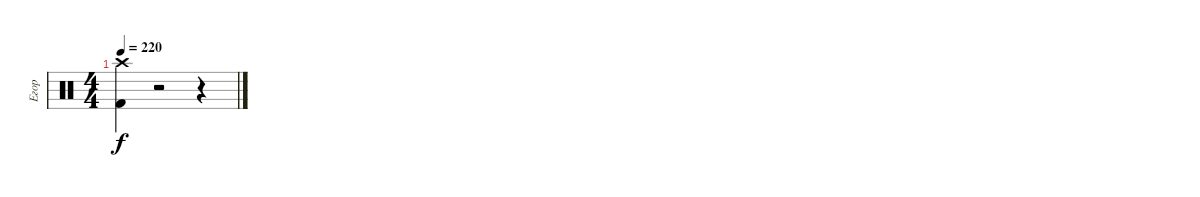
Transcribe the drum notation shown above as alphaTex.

\track ("Егор" "Егор") {instrument percussion}
\staff {score}
\articulation defaults
\ts (4 4)
\tempo 220
\clef neutral
\ks c
("Crash high (hit)" "Kick (hit) 2").4{dy f} r.2 r.4
